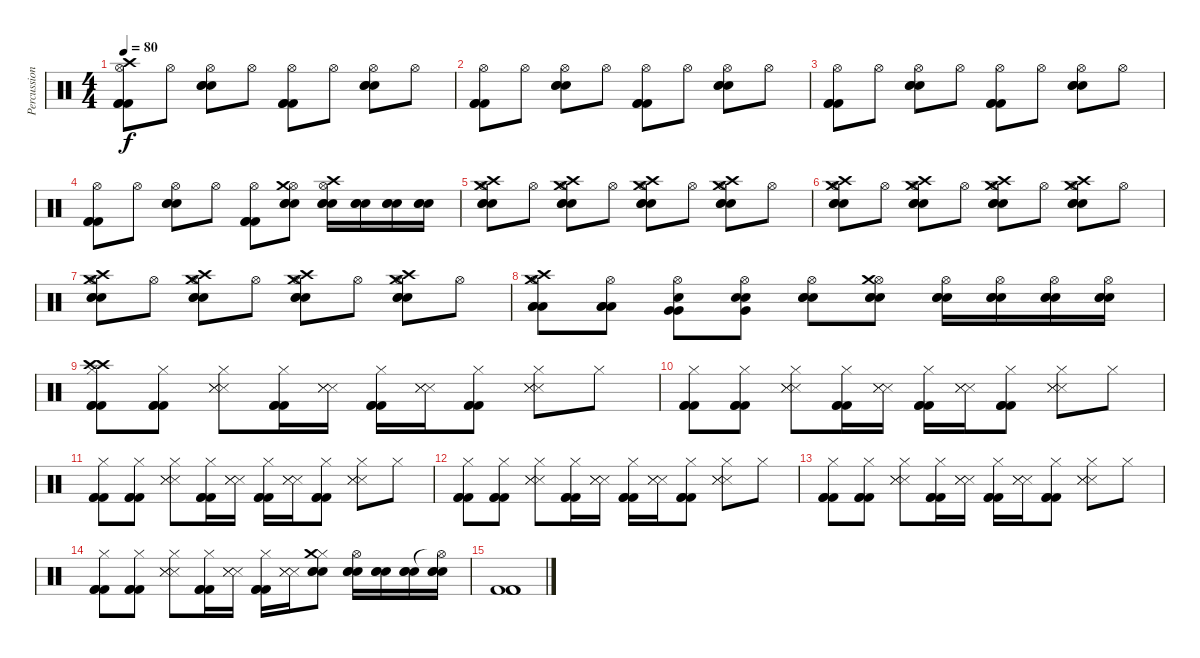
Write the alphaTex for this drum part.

\track ("Percussion" "Percussion") {instrument percussion}
\staff {score}
\articulation defaults
\ts (4 4)
\tempo 80
\clef neutral
\ks c
("Hi-Hat (open)" "Kick (hit) 2" "Kick (hit) 2" "Kick (hit) 2" "Crash high (hit)").8{dy f} "Hi-Hat (open)".8 ("Hi-Hat (open)" "Electric Snare (hit)" "Electric Snare (hit)" "Electric Snare (hit)").8 "Hi-Hat (open)".8 ("Hi-Hat (open)" "Kick (hit) 2" "Kick (hit) 2" "Kick (hit) 2").8 "Hi-Hat (open)".8 ("Hi-Hat (open)" "Electric Snare (hit)" "Electric Snare (hit)" "Electric Snare (hit)").8 "Hi-Hat (open)".8 |
("Hi-Hat (open)" "Kick (hit) 2" "Kick (hit) 2" "Kick (hit) 2").8 "Hi-Hat (open)".8 ("Hi-Hat (open)" "Electric Snare (hit)" "Electric Snare (hit)" "Electric Snare (hit)").8 "Hi-Hat (open)".8 ("Hi-Hat (open)" "Kick (hit) 2" "Kick (hit) 2" "Kick (hit) 2").8 "Hi-Hat (open)".8 ("Hi-Hat (open)" "Electric Snare (hit)" "Electric Snare (hit)" "Electric Snare (hit)").8 "Hi-Hat (open)".8 |
("Hi-Hat (open)" "Kick (hit) 2" "Kick (hit) 2" "Kick (hit) 2").8 "Hi-Hat (open)".8 ("Hi-Hat (open)" "Electric Snare (hit)" "Electric Snare (hit)" "Electric Snare (hit)").8 "Hi-Hat (open)".8 ("Hi-Hat (open)" "Kick (hit) 2" "Kick (hit) 2" "Kick (hit) 2").8 "Hi-Hat (open)".8 ("Hi-Hat (open)" "Electric Snare (hit)" "Electric Snare (hit)" "Electric Snare (hit)").8 "Hi-Hat (open)".8 |
("Hi-Hat (open)" "Kick (hit) 2" "Kick (hit) 2" "Kick (hit) 2").8 "Hi-Hat (open)".8 ("Hi-Hat (open)" "Electric Snare (hit)" "Electric Snare (hit)" "Electric Snare (hit)").8 "Hi-Hat (open)".8 ("Hi-Hat (open)" "Kick (hit) 2" "Kick (hit) 2" "Kick (hit) 2").8 ("Hi-Hat (open)" "Electric Snare (hit)" "Electric Snare (hit)" "Electric Snare (hit)" "Crash medium (hit)").8 ("Hi-Hat (open)" "Electric Snare (hit)" "Electric Snare (hit)" "Electric Snare (hit)" "Crash high (hit)").16 ("Electric Snare (hit)" "Electric Snare (hit)" "Electric Snare (hit)").16 ("Electric Snare (hit)" "Electric Snare (hit)" "Electric Snare (hit)").16 ("Electric Snare (hit)" "Electric Snare (hit)" "Electric Snare (hit)").16 |
("Hi-Hat (open)" "Electric Snare (hit)" "Electric Snare (hit)" "Electric Snare (hit)" "Crash high (hit)" "Crash medium (hit)").8 "Hi-Hat (open)".8 ("Hi-Hat (open)" "Electric Snare (hit)" "Electric Snare (hit)" "Electric Snare (hit)" "Crash high (hit)" "Crash medium (hit)").8 "Hi-Hat (open)".8 ("Hi-Hat (open)" "Electric Snare (hit)" "Electric Snare (hit)" "Electric Snare (hit)" "Crash high (hit)" "Crash medium (hit)").8 "Hi-Hat (open)".8 ("Hi-Hat (open)" "Electric Snare (hit)" "Electric Snare (hit)" "Electric Snare (hit)" "Crash high (hit)" "Crash medium (hit)").8 "Hi-Hat (open)".8 |
("Hi-Hat (open)" "Electric Snare (hit)" "Electric Snare (hit)" "Electric Snare (hit)" "Crash high (hit)" "Crash medium (hit)").8 "Hi-Hat (open)".8 ("Hi-Hat (open)" "Electric Snare (hit)" "Electric Snare (hit)" "Electric Snare (hit)" "Crash high (hit)" "Crash medium (hit)").8 "Hi-Hat (open)".8 ("Hi-Hat (open)" "Electric Snare (hit)" "Electric Snare (hit)" "Electric Snare (hit)" "Crash high (hit)" "Crash medium (hit)").8 "Hi-Hat (open)".8 ("Hi-Hat (open)" "Electric Snare (hit)" "Electric Snare (hit)" "Electric Snare (hit)" "Crash high (hit)" "Crash medium (hit)").8 "Hi-Hat (open)".8 |
("Hi-Hat (open)" "Electric Snare (hit)" "Electric Snare (hit)" "Electric Snare (hit)" "Crash high (hit)" "Crash medium (hit)").8 "Hi-Hat (open)".8 ("Hi-Hat (open)" "Electric Snare (hit)" "Electric Snare (hit)" "Electric Snare (hit)" "Crash high (hit)" "Crash medium (hit)").8 "Hi-Hat (open)".8 ("Hi-Hat (open)" "Electric Snare (hit)" "Electric Snare (hit)" "Electric Snare (hit)" "Crash high (hit)" "Crash medium (hit)").8 "Hi-Hat (open)".8 ("Hi-Hat (open)" "Electric Snare (hit)" "Electric Snare (hit)" "Electric Snare (hit)" "Crash high (hit)" "Crash medium (hit)").8 "Hi-Hat (open)".8 |
("Hi-Hat (open)" "Low Floor Tom (hit)" "Low Floor Tom (hit)" "Low Floor Tom (hit)" "Crash high (hit)" "Crash medium (hit)").8 ("Hi-Hat (open)" "Low Floor Tom (hit)" "Low Floor Tom (hit)" "Low Floor Tom (hit)").8 ("Hi-Hat (open)" "Very Low Tom (hit)" "Very Low Tom (hit)" "Electric Snare (hit)").8 ("Hi-Hat (open)" "Very Low Tom (hit)" "Electric Snare (hit)" "Electric Snare (hit)").8 ("Hi-Hat (open)" "Electric Snare (hit)" "Electric Snare (hit)" "Electric Snare (hit)").8 ("Hi-Hat (open)" "Electric Snare (hit)" "Electric Snare (hit)" "Electric Snare (hit)" "Crash medium (hit)").8 ("Hi-Hat (open)" "Electric Snare (hit)" "Electric Snare (hit)" "Electric Snare (hit)").16 ("Hi-Hat (open)" "Electric Snare (hit)" "Electric Snare (hit)" "Electric Snare (hit)").16 ("Hi-Hat (open)" "Electric Snare (hit)" "Electric Snare (hit)" "Electric Snare (hit)").16 ("Hi-Hat (open)" "Electric Snare (hit)" "Electric Snare (hit)" "Electric Snare (hit)").16 |
("Hi-Hat (closed)" "Kick (hit) 2" "Kick (hit) 2" "Kick (hit) 2" "Crash high (hit)" "Crash high (hit)").8 ("Hi-Hat (closed)" "Kick (hit) 2" "Kick (hit) 2" "Kick (hit) 2").8 ("Hi-Hat (closed)" "Snare (side stick) 3" "Snare (side stick) 3" "Snare (side stick) 3").8 ("Hi-Hat (closed)" "Kick (hit) 2" "Kick (hit) 2" "Kick (hit) 2").16 ("Snare (side stick) 3" "Snare (side stick) 3" "Snare (side stick) 3").16 ("Hi-Hat (closed)" "Kick (hit) 2" "Kick (hit) 2" "Kick (hit) 2").16 ("Snare (side stick) 3" "Snare (side stick) 3" "Snare (side stick) 3").16 ("Hi-Hat (closed)" "Kick (hit) 2" "Kick (hit) 2" "Kick (hit) 2").8 ("Hi-Hat (closed)" "Snare (side stick) 3" "Snare (side stick) 3" "Snare (side stick) 3").8 "Hi-Hat (closed)".8 |
("Hi-Hat (closed)" "Kick (hit) 2" "Kick (hit) 2" "Kick (hit) 2").8 ("Hi-Hat (closed)" "Kick (hit) 2" "Kick (hit) 2" "Kick (hit) 2").8 ("Hi-Hat (closed)" "Snare (side stick) 3" "Snare (side stick) 3" "Snare (side stick) 3").8 ("Hi-Hat (closed)" "Kick (hit) 2" "Kick (hit) 2" "Kick (hit) 2").16 ("Snare (side stick) 3" "Snare (side stick) 3" "Snare (side stick) 3").16 ("Hi-Hat (closed)" "Kick (hit) 2" "Kick (hit) 2" "Kick (hit) 2").16 ("Snare (side stick) 3" "Snare (side stick) 3" "Snare (side stick) 3").16 ("Hi-Hat (closed)" "Kick (hit) 2" "Kick (hit) 2" "Kick (hit) 2").8 ("Hi-Hat (closed)" "Snare (side stick) 3" "Snare (side stick) 3" "Snare (side stick) 3").8 "Hi-Hat (closed)".8 |
("Hi-Hat (closed)" "Kick (hit) 2" "Kick (hit) 2" "Kick (hit) 2").8 ("Hi-Hat (closed)" "Kick (hit) 2" "Kick (hit) 2" "Kick (hit) 2").8 ("Hi-Hat (closed)" "Snare (side stick) 3" "Snare (side stick) 3" "Snare (side stick) 3").8 ("Hi-Hat (closed)" "Kick (hit) 2" "Kick (hit) 2" "Kick (hit) 2").16 ("Snare (side stick) 3" "Snare (side stick) 3" "Snare (side stick) 3").16 ("Hi-Hat (closed)" "Kick (hit) 2" "Kick (hit) 2" "Kick (hit) 2").16 ("Snare (side stick) 3" "Snare (side stick) 3" "Snare (side stick) 3").16 ("Hi-Hat (closed)" "Kick (hit) 2" "Kick (hit) 2" "Kick (hit) 2").8 ("Hi-Hat (closed)" "Snare (side stick) 3" "Snare (side stick) 3" "Snare (side stick) 3").8 "Hi-Hat (closed)".8 |
("Hi-Hat (closed)" "Kick (hit) 2" "Kick (hit) 2" "Kick (hit) 2").8 ("Hi-Hat (closed)" "Kick (hit) 2" "Kick (hit) 2" "Kick (hit) 2").8 ("Hi-Hat (closed)" "Snare (side stick) 3" "Snare (side stick) 3" "Snare (side stick) 3").8 ("Hi-Hat (closed)" "Kick (hit) 2" "Kick (hit) 2" "Kick (hit) 2").16 ("Snare (side stick) 3" "Snare (side stick) 3" "Snare (side stick) 3").16 ("Hi-Hat (closed)" "Kick (hit) 2" "Kick (hit) 2" "Kick (hit) 2").16 ("Snare (side stick) 3" "Snare (side stick) 3" "Snare (side stick) 3").16 ("Hi-Hat (closed)" "Kick (hit) 2" "Kick (hit) 2" "Kick (hit) 2").8 ("Hi-Hat (closed)" "Snare (side stick) 3" "Snare (side stick) 3" "Snare (side stick) 3").8 "Hi-Hat (closed)".8 |
("Hi-Hat (closed)" "Kick (hit) 2" "Kick (hit) 2" "Kick (hit) 2").8 ("Hi-Hat (closed)" "Kick (hit) 2" "Kick (hit) 2" "Kick (hit) 2").8 ("Hi-Hat (closed)" "Snare (side stick) 3" "Snare (side stick) 3" "Snare (side stick) 3").8 ("Hi-Hat (closed)" "Kick (hit) 2" "Kick (hit) 2" "Kick (hit) 2").16 ("Snare (side stick) 3" "Snare (side stick) 3" "Snare (side stick) 3").16 ("Hi-Hat (closed)" "Kick (hit) 2" "Kick (hit) 2" "Kick (hit) 2").16 ("Snare (side stick) 3" "Snare (side stick) 3" "Snare (side stick) 3").16 ("Hi-Hat (closed)" "Kick (hit) 2" "Kick (hit) 2" "Kick (hit) 2").8 ("Hi-Hat (closed)" "Snare (side stick) 3" "Snare (side stick) 3" "Snare (side stick) 3").8 "Hi-Hat (closed)".8 |
("Hi-Hat (closed)" "Kick (hit) 2" "Kick (hit) 2" "Kick (hit) 2").8 ("Hi-Hat (closed)" "Kick (hit) 2" "Kick (hit) 2" "Kick (hit) 2").8 ("Hi-Hat (closed)" "Snare (side stick) 3" "Snare (side stick) 3" "Snare (side stick) 3").8 ("Hi-Hat (closed)" "Kick (hit) 2" "Kick (hit) 2" "Kick (hit) 2").16 ("Snare (side stick) 3" "Snare (side stick) 3" "Snare (side stick) 3").16 ("Hi-Hat (closed)" "Kick (hit) 2" "Kick (hit) 2" "Kick (hit) 2").16 ("Snare (side stick) 3" "Snare (side stick) 3" "Snare (side stick) 3").16 ("Hi-Hat (closed)" "Electric Snare (hit)" "Electric Snare (hit)" "Electric Snare (hit)" "Crash medium (hit)").8 ("Hi-Hat (open)" "Electric Snare (hit)" "Electric Snare (hit)" "Electric Snare (hit)").16 ("Electric Snare (hit)" "Electric Snare (hit)" "Electric Snare (hit)").16 ("Electric Snare (hit)" "Electric Snare (hit)" "Electric Snare (hit)").16 ("Hi-Hat (open)"{t} "Electric Snare (hit)" "Electric Snare (hit)" "Electric Snare (hit)").16 |
("Kick (hit) 2" "Kick (hit) 2" "Kick (hit) 2").1
